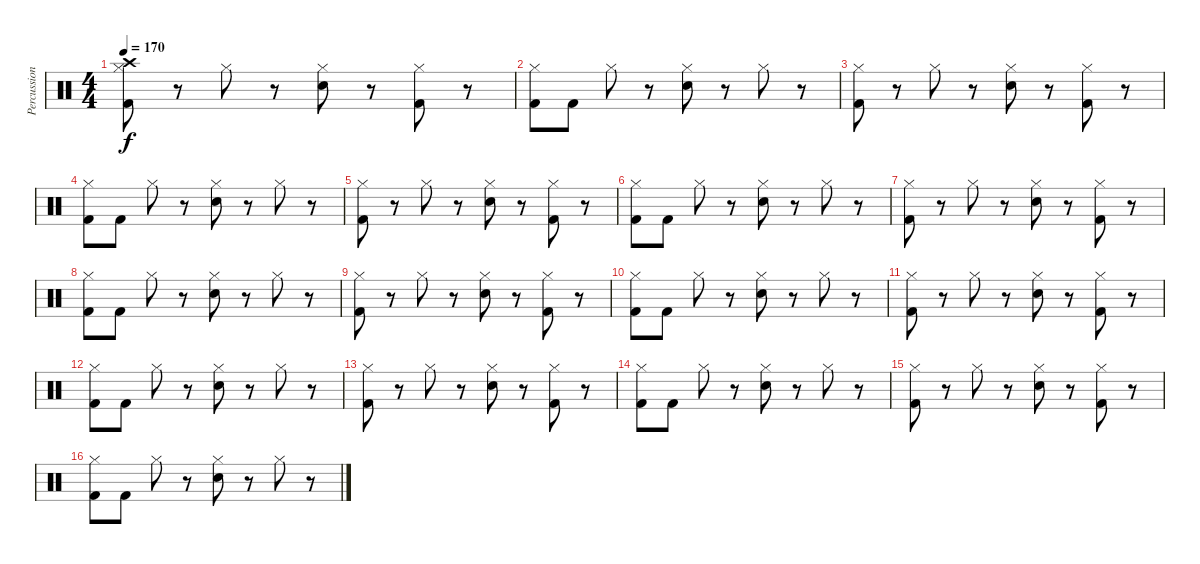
\track ("Percussions" "Percussion") {instrument percussion}
\staff {score}
\articulation defaults
\ts (4 4)
\tempo 170
\clef neutral
\ks c
("Kick (hit) 2" "Crash high (hit)" "Hi-Hat (closed)").8{dy f} r.8 "Hi-Hat (closed)".8 r.8 ("Electric Snare (hit)" "Hi-Hat (closed)").8 r.8 ("Kick (hit) 2" "Hi-Hat (closed)").8 r.8 |
("Kick (hit) 2" "Hi-Hat (closed)").8 "Kick (hit) 2".8 "Hi-Hat (closed)".8 r.8 ("Electric Snare (hit)" "Hi-Hat (closed)").8 r.8 "Hi-Hat (closed)".8 r.8 |
("Kick (hit) 2" "Hi-Hat (closed)").8 r.8 "Hi-Hat (closed)".8 r.8 ("Electric Snare (hit)" "Hi-Hat (closed)").8 r.8 ("Kick (hit) 2" "Hi-Hat (closed)").8 r.8 |
("Kick (hit) 2" "Hi-Hat (closed)").8 "Kick (hit) 2".8 "Hi-Hat (closed)".8 r.8 ("Electric Snare (hit)" "Hi-Hat (closed)").8 r.8 "Hi-Hat (closed)".8 r.8 |
("Kick (hit) 2" "Hi-Hat (closed)").8 r.8 "Hi-Hat (closed)".8 r.8 ("Electric Snare (hit)" "Hi-Hat (closed)").8 r.8 ("Kick (hit) 2" "Hi-Hat (closed)").8 r.8 |
("Kick (hit) 2" "Hi-Hat (closed)").8 "Kick (hit) 2".8 "Hi-Hat (closed)".8 r.8 ("Electric Snare (hit)" "Hi-Hat (closed)").8 r.8 "Hi-Hat (closed)".8 r.8 |
("Kick (hit) 2" "Hi-Hat (closed)").8 r.8 "Hi-Hat (closed)".8 r.8 ("Electric Snare (hit)" "Hi-Hat (closed)").8 r.8 ("Kick (hit) 2" "Hi-Hat (closed)").8 r.8 |
("Kick (hit) 2" "Hi-Hat (closed)").8 "Kick (hit) 2".8 "Hi-Hat (closed)".8 r.8 ("Electric Snare (hit)" "Hi-Hat (closed)").8 r.8 "Hi-Hat (closed)".8 r.8 |
("Kick (hit) 2" "Hi-Hat (closed)").8 r.8 "Hi-Hat (closed)".8 r.8 ("Electric Snare (hit)" "Hi-Hat (closed)").8 r.8 ("Kick (hit) 2" "Hi-Hat (closed)").8 r.8 |
("Kick (hit) 2" "Hi-Hat (closed)").8 "Kick (hit) 2".8 "Hi-Hat (closed)".8 r.8 ("Electric Snare (hit)" "Hi-Hat (closed)").8 r.8 "Hi-Hat (closed)".8 r.8 |
("Kick (hit) 2" "Hi-Hat (closed)").8 r.8 "Hi-Hat (closed)".8 r.8 ("Electric Snare (hit)" "Hi-Hat (closed)").8 r.8 ("Kick (hit) 2" "Hi-Hat (closed)").8 r.8 |
("Kick (hit) 2" "Hi-Hat (closed)").8 "Kick (hit) 2".8 "Hi-Hat (closed)".8 r.8 ("Electric Snare (hit)" "Hi-Hat (closed)").8 r.8 "Hi-Hat (closed)".8 r.8 |
("Kick (hit) 2" "Hi-Hat (closed)").8 r.8 "Hi-Hat (closed)".8 r.8 ("Electric Snare (hit)" "Hi-Hat (closed)").8 r.8 ("Kick (hit) 2" "Hi-Hat (closed)").8 r.8 |
("Kick (hit) 2" "Hi-Hat (closed)").8 "Kick (hit) 2".8 "Hi-Hat (closed)".8 r.8 ("Electric Snare (hit)" "Hi-Hat (closed)").8 r.8 "Hi-Hat (closed)".8 r.8 |
("Kick (hit) 2" "Hi-Hat (closed)").8 r.8 "Hi-Hat (closed)".8 r.8 ("Electric Snare (hit)" "Hi-Hat (closed)").8 r.8 ("Kick (hit) 2" "Hi-Hat (closed)").8 r.8 |
("Kick (hit) 2" "Hi-Hat (closed)").8 "Kick (hit) 2".8 "Hi-Hat (closed)".8 r.8 ("Electric Snare (hit)" "Hi-Hat (closed)").8 r.8 "Hi-Hat (closed)".8 r.8
